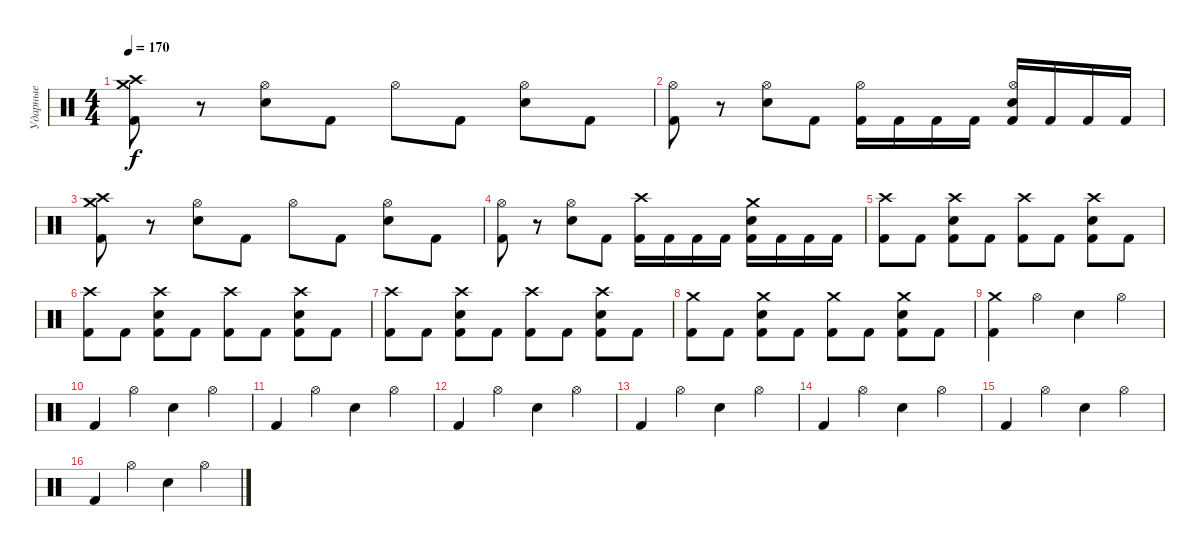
\track ("Ударные" "Ударные") {instrument percussion}
\staff {score}
\articulation defaults
\ts (4 4)
\tempo 170
\clef neutral
\ks c
("Crash medium (hit)" "Crash high (hit)" "Kick (hit) 2").8{dy f} r.8 ("Hi-Hat (open)" "Electric Snare (hit)").8 "Kick (hit) 2".8 "Hi-Hat (open)".8 "Kick (hit) 2".8 ("Hi-Hat (open)" "Electric Snare (hit)").8 "Kick (hit) 2".8 |
("Hi-Hat (open)" "Kick (hit) 2").8 r.8 ("Hi-Hat (open)" "Electric Snare (hit)").8 "Kick (hit) 2".8 ("Hi-Hat (open)" "Kick (hit) 2").16 "Kick (hit) 2".16 "Kick (hit) 2".16 "Kick (hit) 2".16 ("Hi-Hat (open)" "Electric Snare (hit)" "Kick (hit) 2").16 "Kick (hit) 2".16 "Kick (hit) 2".16 "Kick (hit) 2".16 |
("Crash medium (hit)" "Crash high (hit)" "Kick (hit) 2").8 r.8 ("Hi-Hat (open)" "Electric Snare (hit)").8 "Kick (hit) 2".8 "Hi-Hat (open)".8 "Kick (hit) 2".8 ("Hi-Hat (open)" "Electric Snare (hit)").8 "Kick (hit) 2".8 |
("Hi-Hat (open)" "Kick (hit) 2").8 r.8 ("Hi-Hat (open)" "Electric Snare (hit)").8 "Kick (hit) 2".8 ("Crash high (hit)" "Kick (hit) 2").16 "Kick (hit) 2".16 "Kick (hit) 2".16 "Kick (hit) 2".16 ("Crash medium (hit)" "Electric Snare (hit)" "Kick (hit) 2").16 "Kick (hit) 2".16 "Kick (hit) 2".16 "Kick (hit) 2".16 |
("Crash high (hit)" "Kick (hit) 2").8 "Kick (hit) 2".8 ("Crash high (hit)" "Electric Snare (hit)" "Kick (hit) 2").8 "Kick (hit) 2".8 ("Crash high (hit)" "Kick (hit) 2").8 "Kick (hit) 2".8 ("Crash high (hit)" "Electric Snare (hit)" "Kick (hit) 2").8 "Kick (hit) 2".8 |
("Crash high (hit)" "Kick (hit) 2").8 "Kick (hit) 2".8 ("Crash high (hit)" "Electric Snare (hit)" "Kick (hit) 2").8 "Kick (hit) 2".8 ("Crash high (hit)" "Kick (hit) 2").8 "Kick (hit) 2".8 ("Crash high (hit)" "Electric Snare (hit)" "Kick (hit) 2").8 "Kick (hit) 2".8 |
("Crash high (hit)" "Kick (hit) 2").8 "Kick (hit) 2".8 ("Crash high (hit)" "Electric Snare (hit)" "Kick (hit) 2").8 "Kick (hit) 2".8 ("Crash high (hit)" "Kick (hit) 2").8 "Kick (hit) 2".8 ("Crash high (hit)" "Electric Snare (hit)" "Kick (hit) 2").8 "Kick (hit) 2".8 |
("Crash medium (hit)" "Kick (hit) 2").8 "Kick (hit) 2".8 ("Crash medium (hit)" "Electric Snare (hit)" "Kick (hit) 2").8 "Kick (hit) 2".8 ("Crash medium (hit)" "Kick (hit) 2").8 "Kick (hit) 2".8 ("Crash medium (hit)" "Electric Snare (hit)" "Kick (hit) 2").8 "Kick (hit) 2".8 |
("Crash medium (hit)" "Kick (hit) 2").4 "Hi-Hat (open)".4 "Electric Snare (hit)".4 "Hi-Hat (open)".4 |
"Kick (hit) 2".4 "Hi-Hat (open)".4 "Electric Snare (hit)".4 "Hi-Hat (open)".4 |
"Kick (hit) 2".4 "Hi-Hat (open)".4 "Electric Snare (hit)".4 "Hi-Hat (open)".4 |
"Kick (hit) 2".4 "Hi-Hat (open)".4 "Electric Snare (hit)".4 "Hi-Hat (open)".4 |
"Kick (hit) 2".4 "Hi-Hat (open)".4 "Electric Snare (hit)".4 "Hi-Hat (open)".4 |
"Kick (hit) 2".4 "Hi-Hat (open)".4 "Electric Snare (hit)".4 "Hi-Hat (open)".4 |
"Kick (hit) 2".4 "Hi-Hat (open)".4 "Electric Snare (hit)".4 "Hi-Hat (open)".4 |
"Kick (hit) 2".4 "Hi-Hat (open)".4 "Electric Snare (hit)".4 "Hi-Hat (open)".4
